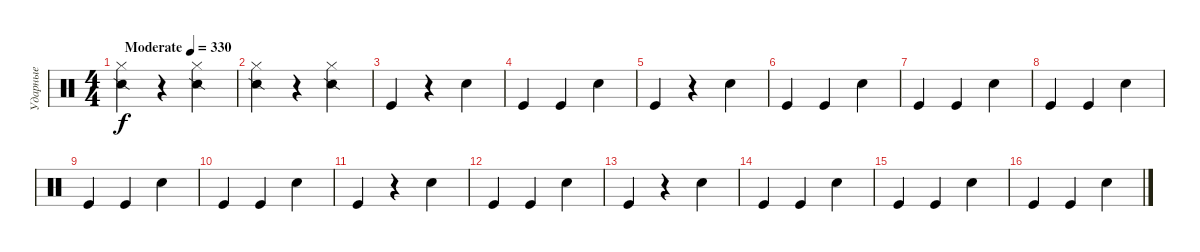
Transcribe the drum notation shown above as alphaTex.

\track ("Ударные" "Ударные") {instrument percussion}
\staff {score}
\articulation defaults
\ts (4 4)
\tempo (330 "Moderate")
\clef neutral
\ks c
("Snare (side stick) 2" "Hi-Hat (closed)").4{dy f} r.4 ("Snare (side stick) 2" "Hi-Hat (closed)").4 |
("Snare (side stick) 2" "Hi-Hat (closed)").4 r.4 ("Snare (side stick) 2" "Hi-Hat (closed)").4 |
"Kick (hit)".4 r.4 "Snare (hit) 2".4 |
"Kick (hit)".4 "Kick (hit)".4 "Snare (hit) 2".4 |
"Kick (hit)".4 r.4 "Snare (hit) 2".4 |
"Kick (hit)".4 "Kick (hit)".4 "Snare (hit) 2".4 |
"Kick (hit)".4 "Kick (hit)".4 "Snare (hit) 2".4 |
"Kick (hit)".4 "Kick (hit)".4 "Snare (hit) 2".4 |
"Kick (hit)".4 "Kick (hit)".4 "Snare (hit) 2".4 |
"Kick (hit)".4 "Kick (hit)".4 "Snare (hit) 2".4 |
"Kick (hit)".4 r.4 "Snare (hit) 2".4 |
"Kick (hit)".4 "Kick (hit)".4 "Snare (hit) 2".4 |
"Kick (hit)".4 r.4 "Snare (hit) 2".4 |
"Kick (hit)".4 "Kick (hit)".4 "Snare (hit) 2".4 |
"Kick (hit)".4 "Kick (hit)".4 "Snare (hit) 2".4 |
"Kick (hit)".4 "Kick (hit)".4 "Snare (hit) 2".4
